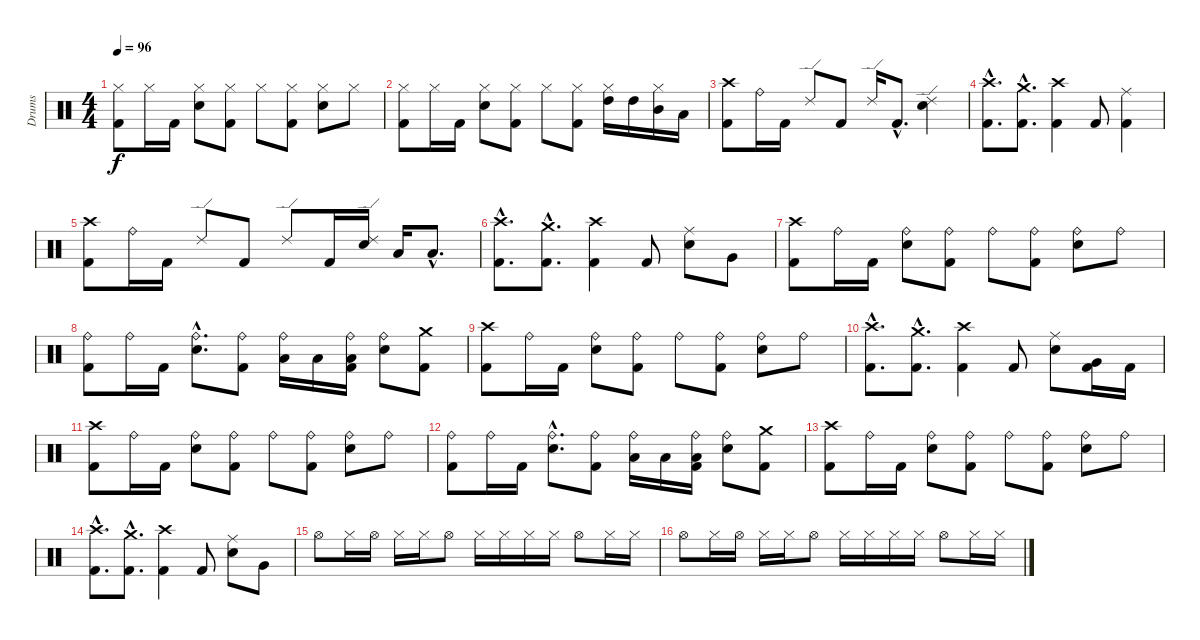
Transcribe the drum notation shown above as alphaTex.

\track ("Drums" "Drums") {instrument percussion}
\staff {score}
\articulation defaults
\ts (4 4)
\tempo 96
\clef neutral
\ks c
("Kick (hit) 2" "Hi-Hat (closed)").8{dy f} "Hi-Hat (closed)".16 "Kick (hit) 2".16 ("Snare (hit) 2" "Hi-Hat (closed)").8 ("Kick (hit) 2" "Hi-Hat (closed)").8 "Hi-Hat (closed)".8 ("Kick (hit) 2" "Hi-Hat (closed)").8 ("Snare (hit) 2" "Hi-Hat (closed)").8 "Hi-Hat (closed)".8 |
("Kick (hit) 2" "Hi-Hat (closed)").8 "Hi-Hat (closed)".16 "Kick (hit) 2".16 ("Snare (hit) 2" "Hi-Hat (closed)").8 ("Kick (hit) 2" "Hi-Hat (closed)").8 "Hi-Hat (closed)".8 ("Kick (hit) 2" "Hi-Hat (closed)").8 ("Hi-Hat (closed)" "High Tom (hit)").16 "High Tom (hit)".16 ("Hi-Hat (closed)" "Mid Tom (hit)").16 "Low Tom (hit)".16 |
("Kick (hit) 2" "Crash high (hit)").8 "Ride (bell)".16 "Kick (hit) 2".16 "Ride (edge) 2".8 "Kick (hit) 2".8 "Ride (edge) 2".16 "Kick (hit) 2"{hac}.8{d} ("Snare (hit) 2" "Ride (edge) 2").4 |
("Kick (hit) 2"{hac} "Crash high (hit)"{hac}).8{d} ("Kick (hit) 2"{hac} "Crash medium (hit)"{hac}).8{d} ("Kick (hit) 2" "Crash high (hit)").4 "Kick (hit) 2".8 ("Kick (hit) 2" "Ride (middle)").4 |
("Kick (hit) 2" "Crash high (hit)").8 "Ride (bell)".16 "Kick (hit) 2".16 "Ride (edge) 2".8 "Kick (hit) 2".8 "Ride (edge) 2".8 "Kick (hit) 2".16 ("Snare (hit) 2" "Ride (edge) 2").16 "Low Tom (hit)".16 "Low Tom (hit)"{hac}.8{d} |
("Kick (hit) 2"{hac} "Crash high (hit)"{hac}).8{d} ("Kick (hit) 2"{hac} "Crash medium (hit)"{hac}).8{d} ("Kick (hit) 2" "Crash high (hit)").4 "Kick (hit) 2".8 ("Snare (hit) 2" "Ride (middle)").8 "Very Low Tom (hit)".8 |
("Kick (hit) 2" "Crash high (hit)").8 "Ride (bell)".16 "Kick (hit) 2".16 ("Snare (hit) 2" "Ride (bell)").8 ("Kick (hit) 2" "Ride (bell)").8 "Ride (bell)".8 ("Kick (hit) 2" "Ride (bell)").8 ("Snare (hit) 2" "Ride (bell)").8 "Ride (bell)".8 |
("Kick (hit) 2" "Ride (bell)").8 "Ride (bell)".16 "Kick (hit) 2".16 ("Snare (hit) 2"{hac} "Ride (bell)"{hac}).8{d} ("Kick (hit) 2" "Ride (bell)").8 ("Low Tom (hit)" "Ride (bell)").16 "Low Tom (hit)".16 ("Kick (hit) 2" "Low Tom (hit)" "Ride (bell)").16 ("Snare (hit) 2" "Ride (bell)").8 ("Kick (hit) 2" "Crash medium (hit)").8 |
("Kick (hit) 2" "Crash high (hit)").8 "Ride (bell)".16 "Kick (hit) 2".16 ("Snare (hit) 2" "Ride (bell)").8 ("Kick (hit) 2" "Ride (bell)").8 "Ride (bell)".8 ("Kick (hit) 2" "Ride (bell)").8 ("Snare (hit) 2" "Ride (bell)").8 "Ride (bell)".8 |
("Kick (hit) 2"{hac} "Crash high (hit)"{hac}).8{d} ("Kick (hit) 2"{hac} "Crash medium (hit)"{hac}).8{d} ("Kick (hit) 2" "Crash high (hit)").4 "Kick (hit) 2".8 ("Snare (hit) 2" "Ride (middle)").8 ("Kick (hit) 2" "Very Low Tom (hit)").16 "Kick (hit) 2".16 |
("Kick (hit) 2" "Crash high (hit)").8 "Ride (bell)".16 "Kick (hit) 2".16 ("Snare (hit) 2" "Ride (bell)").8 ("Kick (hit) 2" "Ride (bell)").8 "Ride (bell)".8 ("Kick (hit) 2" "Ride (bell)").8 ("Snare (hit) 2" "Ride (bell)").8 "Ride (bell)".8 |
("Kick (hit) 2" "Ride (bell)").8 "Ride (bell)".16 "Kick (hit) 2".16 ("Snare (hit) 2"{hac} "Ride (bell)"{hac}).8{d} ("Kick (hit) 2" "Ride (bell)").8 ("Low Tom (hit)" "Ride (bell)").16 "Low Tom (hit)".16 ("Kick (hit) 2" "Low Tom (hit)" "Ride (bell)").16 ("Snare (hit) 2" "Ride (bell)").8 ("Kick (hit) 2" "Crash medium (hit)").8 |
("Kick (hit) 2" "Crash high (hit)").8 "Ride (bell)".16 "Kick (hit) 2".16 ("Snare (hit) 2" "Ride (bell)").8 ("Kick (hit) 2" "Ride (bell)").8 "Ride (bell)".8 ("Kick (hit) 2" "Ride (bell)").8 ("Snare (hit) 2" "Ride (bell)").8 "Ride (bell)".8 |
("Kick (hit) 2"{hac} "Crash high (hit)"{hac}).8{d} ("Kick (hit) 2"{hac} "Crash medium (hit)"{hac}).8{d} ("Kick (hit) 2" "Crash high (hit)").4 "Kick (hit) 2".8 ("Snare (hit) 2" "Ride (middle)").8 "Very Low Tom (hit)".8 |
"Hi-Hat (open)".8 "Hi-Hat (closed)".16 "Hi-Hat (open)".16 "Hi-Hat (closed)".16 "Hi-Hat (closed)".16 "Hi-Hat (open)".8 "Hi-Hat (closed)".16 "Hi-Hat (closed)".16 "Hi-Hat (closed)".16 "Hi-Hat (closed)".16 "Hi-Hat (open)".8 "Hi-Hat (closed)".16 "Hi-Hat (closed)".16 |
"Hi-Hat (open)".8 "Hi-Hat (closed)".16 "Hi-Hat (open)".16 "Hi-Hat (closed)".16 "Hi-Hat (closed)".16 "Hi-Hat (open)".8 "Hi-Hat (closed)".16 "Hi-Hat (closed)".16 "Hi-Hat (closed)".16 "Hi-Hat (closed)".16 "Hi-Hat (open)".8 "Hi-Hat (closed)".16 "Hi-Hat (closed)".16
